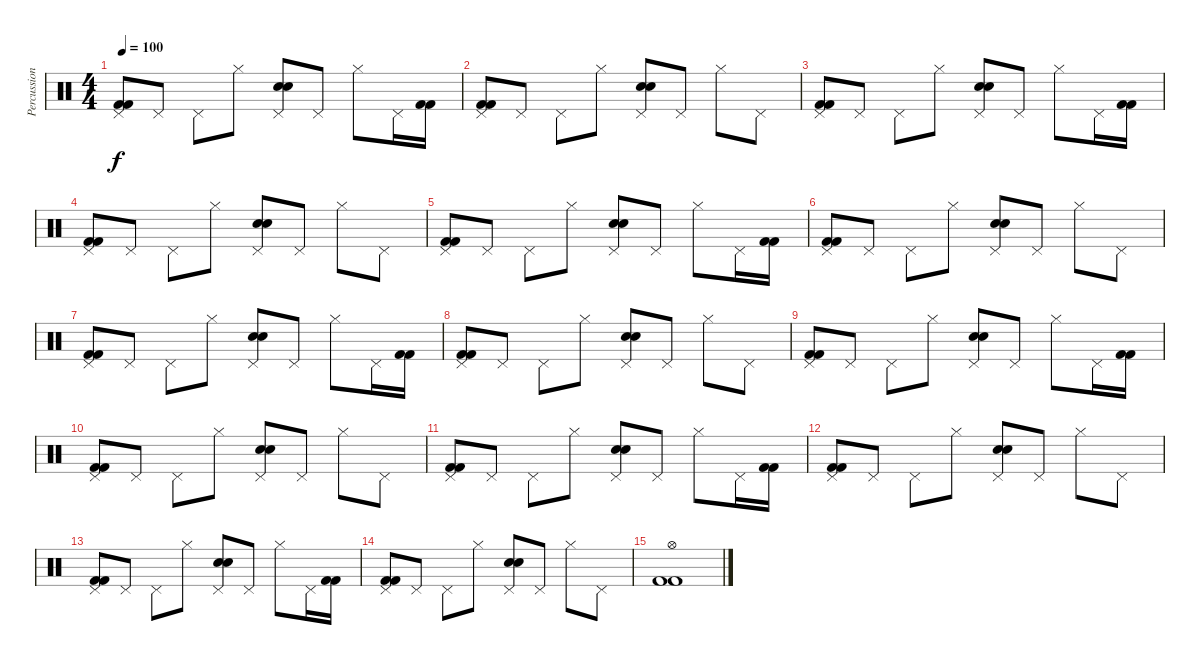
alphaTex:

\track ("Percussioni" "Percussion") {instrument percussion}
\staff {score}
\articulation defaults
\ts (4 4)
\tempo 100
\clef neutral
\ks c
("Pedal Hi-Hat (hit)" "Kick (hit) 2" "Kick (hit) 2").8{dy f} "Pedal Hi-Hat (hit)".8 "Pedal Hi-Hat (hit)".8 "Hi-Hat (closed)".8 ("Pedal Hi-Hat (hit)" "Snare (hit) 2" "Snare (hit) 2").8 "Pedal Hi-Hat (hit)".8 "Hi-Hat (closed)".8 "Pedal Hi-Hat (hit)".16 ("Kick (hit) 2" "Kick (hit) 2").16 |
("Pedal Hi-Hat (hit)" "Kick (hit) 2" "Kick (hit) 2").8 "Pedal Hi-Hat (hit)".8 "Pedal Hi-Hat (hit)".8 "Hi-Hat (closed)".8 ("Pedal Hi-Hat (hit)" "Snare (hit) 2" "Snare (hit) 2").8 "Pedal Hi-Hat (hit)".8 "Hi-Hat (closed)".8 "Pedal Hi-Hat (hit)".8 |
("Pedal Hi-Hat (hit)" "Kick (hit) 2" "Kick (hit) 2").8 "Pedal Hi-Hat (hit)".8 "Pedal Hi-Hat (hit)".8 "Hi-Hat (closed)".8 ("Pedal Hi-Hat (hit)" "Snare (hit) 2" "Snare (hit) 2").8 "Pedal Hi-Hat (hit)".8 "Hi-Hat (closed)".8 "Pedal Hi-Hat (hit)".16 ("Kick (hit) 2" "Kick (hit) 2").16 |
("Pedal Hi-Hat (hit)" "Kick (hit) 2" "Kick (hit) 2").8 "Pedal Hi-Hat (hit)".8 "Pedal Hi-Hat (hit)".8 "Hi-Hat (closed)".8 ("Pedal Hi-Hat (hit)" "Snare (hit) 2" "Snare (hit) 2").8 "Pedal Hi-Hat (hit)".8 "Hi-Hat (closed)".8 "Pedal Hi-Hat (hit)".8 |
("Pedal Hi-Hat (hit)" "Kick (hit) 2" "Kick (hit) 2").8 "Pedal Hi-Hat (hit)".8 "Pedal Hi-Hat (hit)".8 "Hi-Hat (closed)".8 ("Pedal Hi-Hat (hit)" "Snare (hit) 2" "Snare (hit) 2").8 "Pedal Hi-Hat (hit)".8 "Hi-Hat (closed)".8 "Pedal Hi-Hat (hit)".16 ("Kick (hit) 2" "Kick (hit) 2").16 |
("Pedal Hi-Hat (hit)" "Kick (hit) 2" "Kick (hit) 2").8 "Pedal Hi-Hat (hit)".8 "Pedal Hi-Hat (hit)".8 "Hi-Hat (closed)".8 ("Pedal Hi-Hat (hit)" "Snare (hit) 2" "Snare (hit) 2").8 "Pedal Hi-Hat (hit)".8 "Hi-Hat (closed)".8 "Pedal Hi-Hat (hit)".8 |
("Pedal Hi-Hat (hit)" "Kick (hit) 2" "Kick (hit) 2").8 "Pedal Hi-Hat (hit)".8 "Pedal Hi-Hat (hit)".8 "Hi-Hat (closed)".8 ("Pedal Hi-Hat (hit)" "Snare (hit) 2" "Snare (hit) 2").8 "Pedal Hi-Hat (hit)".8 "Hi-Hat (closed)".8 "Pedal Hi-Hat (hit)".16 ("Kick (hit) 2" "Kick (hit) 2").16 |
("Pedal Hi-Hat (hit)" "Kick (hit) 2" "Kick (hit) 2").8 "Pedal Hi-Hat (hit)".8 "Pedal Hi-Hat (hit)".8 "Hi-Hat (closed)".8 ("Pedal Hi-Hat (hit)" "Snare (hit) 2" "Snare (hit) 2").8 "Pedal Hi-Hat (hit)".8 "Hi-Hat (closed)".8 "Pedal Hi-Hat (hit)".8 |
("Pedal Hi-Hat (hit)" "Kick (hit) 2" "Kick (hit) 2").8 "Pedal Hi-Hat (hit)".8 "Pedal Hi-Hat (hit)".8 "Hi-Hat (closed)".8 ("Pedal Hi-Hat (hit)" "Snare (hit) 2" "Snare (hit) 2").8 "Pedal Hi-Hat (hit)".8 "Hi-Hat (closed)".8 "Pedal Hi-Hat (hit)".16 ("Kick (hit) 2" "Kick (hit) 2").16 |
("Pedal Hi-Hat (hit)" "Kick (hit) 2" "Kick (hit) 2").8 "Pedal Hi-Hat (hit)".8 "Pedal Hi-Hat (hit)".8 "Hi-Hat (closed)".8 ("Pedal Hi-Hat (hit)" "Snare (hit) 2" "Snare (hit) 2").8 "Pedal Hi-Hat (hit)".8 "Hi-Hat (closed)".8 "Pedal Hi-Hat (hit)".8 |
("Pedal Hi-Hat (hit)" "Kick (hit) 2" "Kick (hit) 2").8 "Pedal Hi-Hat (hit)".8 "Pedal Hi-Hat (hit)".8 "Hi-Hat (closed)".8 ("Pedal Hi-Hat (hit)" "Snare (hit) 2" "Snare (hit) 2").8 "Pedal Hi-Hat (hit)".8 "Hi-Hat (closed)".8 "Pedal Hi-Hat (hit)".16 ("Kick (hit) 2" "Kick (hit) 2").16 |
("Pedal Hi-Hat (hit)" "Kick (hit) 2" "Kick (hit) 2").8 "Pedal Hi-Hat (hit)".8 "Pedal Hi-Hat (hit)".8 "Hi-Hat (closed)".8 ("Pedal Hi-Hat (hit)" "Snare (hit) 2" "Snare (hit) 2").8 "Pedal Hi-Hat (hit)".8 "Hi-Hat (closed)".8 "Pedal Hi-Hat (hit)".8 |
("Pedal Hi-Hat (hit)" "Kick (hit) 2" "Kick (hit) 2").8 "Pedal Hi-Hat (hit)".8 "Pedal Hi-Hat (hit)".8 "Hi-Hat (closed)".8 ("Pedal Hi-Hat (hit)" "Snare (hit) 2" "Snare (hit) 2").8 "Pedal Hi-Hat (hit)".8 "Hi-Hat (closed)".8 "Pedal Hi-Hat (hit)".16 ("Kick (hit) 2" "Kick (hit) 2").16 |
("Pedal Hi-Hat (hit)" "Kick (hit) 2" "Kick (hit) 2").8 "Pedal Hi-Hat (hit)".8 "Pedal Hi-Hat (hit)".8 "Hi-Hat (closed)".8 ("Pedal Hi-Hat (hit)" "Snare (hit) 2" "Snare (hit) 2").8 "Pedal Hi-Hat (hit)".8 "Hi-Hat (closed)".8 "Pedal Hi-Hat (hit)".8 |
("Hi-Hat (open)" "Kick (hit) 2" "Kick (hit) 2").1
